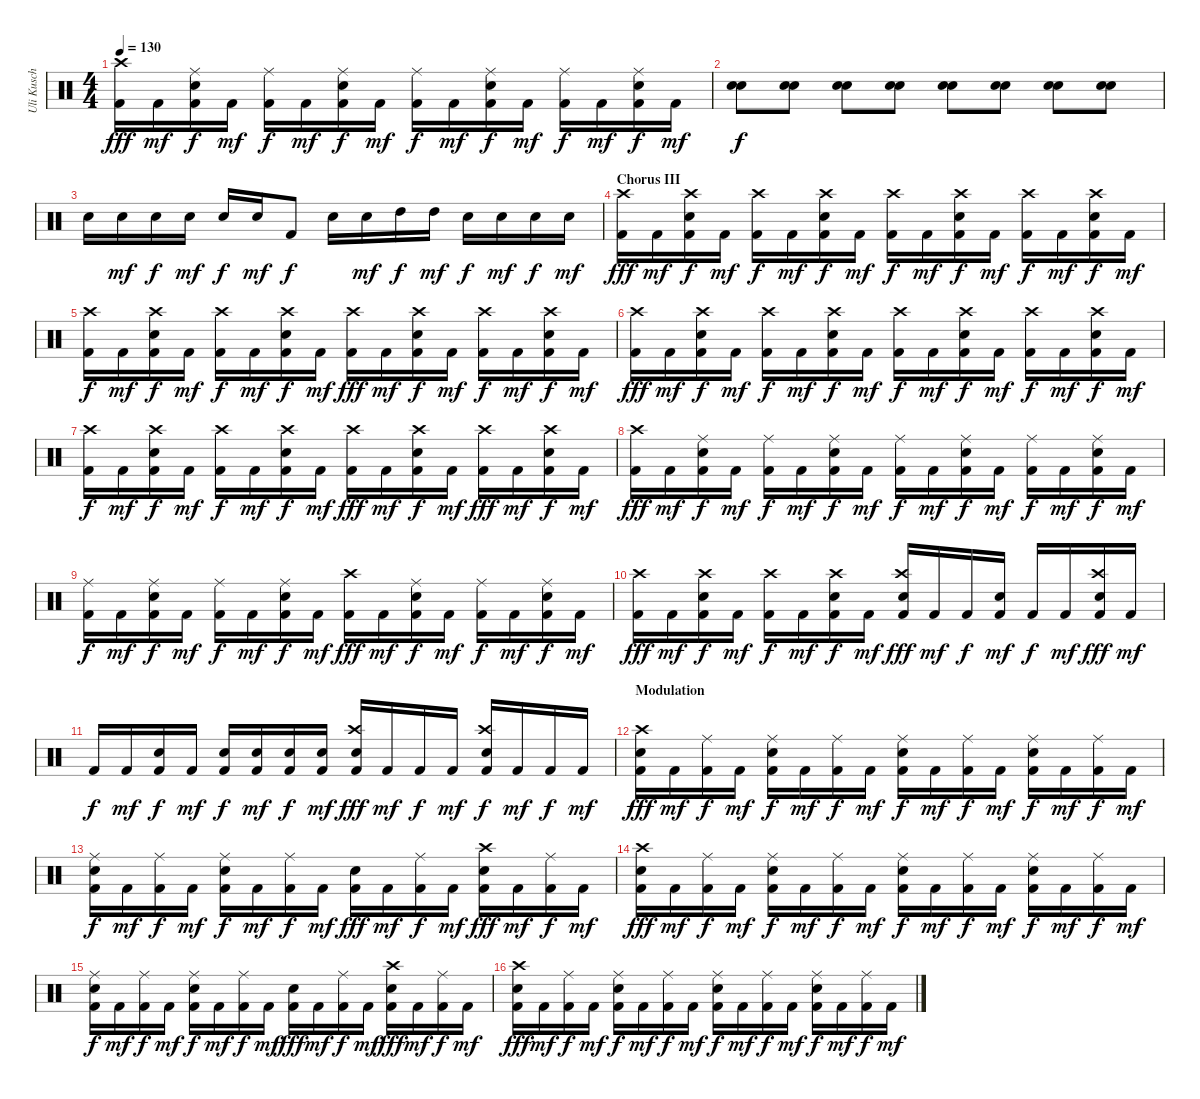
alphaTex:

\track ("Uli Kusch" "Uli Kusch") {instrument percussion}
\staff {score}
\articulation defaults
\ts (4 4)
\tempo 130
\clef neutral
\ks c
("Kick (hit) 2" "Crash high (hit)").16{dy fff} "Kick (hit) 2".16{dy mf} ("Kick (hit) 2" "Electric Snare (hit)" "Ride (middle)").16{dy f} "Kick (hit) 2".16{dy mf} ("Kick (hit) 2" "Ride (middle)").16{dy f} "Kick (hit) 2".16{dy mf} ("Kick (hit) 2" "Electric Snare (hit)" "Ride (middle)").16{dy f} "Kick (hit) 2".16{dy mf} ("Kick (hit) 2" "Ride (middle)").16{dy f} "Kick (hit) 2".16{dy mf} ("Kick (hit) 2" "Electric Snare (hit)" "Ride (middle)").16{dy f} "Kick (hit) 2".16{dy mf} ("Kick (hit) 2" "Ride (middle)").16{dy f} "Kick (hit) 2".16{dy mf} ("Kick (hit) 2" "Electric Snare (hit)" "Ride (middle)").16{dy f} "Kick (hit) 2".16{dy mf} |
("Snare (hit) 2" "Electric Snare (hit)").8{dy f} ("Snare (hit) 2" "Electric Snare (hit)").8 ("Snare (hit) 2" "Electric Snare (hit)").8 ("Snare (hit) 2" "Electric Snare (hit)").8 ("Snare (hit) 2" "Electric Snare (hit)").8 ("Snare (hit) 2" "Electric Snare (hit)").8 ("Snare (hit) 2" "Electric Snare (hit)").8 ("Snare (hit) 2" "Electric Snare (hit)").8 |
"Electric Snare (hit)".16 "Electric Snare (hit)".16{dy mf} "Electric Snare (hit)".16{dy f} "Electric Snare (hit)".16{dy mf} "Electric Snare (hit)".16{dy f} "Electric Snare (hit)".16{dy mf} "Kick (hit) 2".8{dy f} "Electric Snare (hit)".16 "Electric Snare (hit)".16{dy mf} "High Tom (hit)".16{dy f} "High Tom (hit)".16{dy mf} "Electric Snare (hit)".16{dy f} "Electric Snare (hit)".16{dy mf} "Electric Snare (hit)".16{dy f} "Electric Snare (hit)".16{dy mf} |
\section ("" "Chorus III")
("Kick (hit) 2" "Crash high (hit)").16{dy fff} "Kick (hit) 2".16{dy mf} ("Kick (hit) 2" "Electric Snare (hit)" "Crash high (hit)").16{dy f} "Kick (hit) 2".16{dy mf} ("Kick (hit) 2" "Crash high (hit)").16{dy f} "Kick (hit) 2".16{dy mf} ("Kick (hit) 2" "Electric Snare (hit)" "Crash high (hit)").16{dy f} "Kick (hit) 2".16{dy mf} ("Kick (hit) 2" "Crash high (hit)").16{dy f} "Kick (hit) 2".16{dy mf} ("Kick (hit) 2" "Electric Snare (hit)" "Crash high (hit)").16{dy f} "Kick (hit) 2".16{dy mf} ("Kick (hit) 2" "Crash high (hit)").16{dy f} "Kick (hit) 2".16{dy mf} ("Kick (hit) 2" "Electric Snare (hit)" "Crash high (hit)").16{dy f} "Kick (hit) 2".16{dy mf} |
("Kick (hit) 2" "Crash high (hit)").16{dy f} "Kick (hit) 2".16{dy mf} ("Kick (hit) 2" "Electric Snare (hit)" "Crash high (hit)").16{dy f} "Kick (hit) 2".16{dy mf} ("Kick (hit) 2" "Crash high (hit)").16{dy f} "Kick (hit) 2".16{dy mf} ("Kick (hit) 2" "Electric Snare (hit)" "Crash high (hit)").16{dy f} "Kick (hit) 2".16{dy mf} ("Kick (hit) 2" "Crash high (hit)").16{dy fff} "Kick (hit) 2".16{dy mf} ("Kick (hit) 2" "Electric Snare (hit)" "Crash high (hit)").16{dy f} "Kick (hit) 2".16{dy mf} ("Kick (hit) 2" "Crash high (hit)").16{dy f} "Kick (hit) 2".16{dy mf} ("Kick (hit) 2" "Electric Snare (hit)" "Crash high (hit)").16{dy f} "Kick (hit) 2".16{dy mf} |
("Kick (hit) 2" "Crash high (hit)").16{dy fff} "Kick (hit) 2".16{dy mf} ("Kick (hit) 2" "Electric Snare (hit)" "Crash high (hit)").16{dy f} "Kick (hit) 2".16{dy mf} ("Kick (hit) 2" "Crash high (hit)").16{dy f} "Kick (hit) 2".16{dy mf} ("Kick (hit) 2" "Electric Snare (hit)" "Crash high (hit)").16{dy f} "Kick (hit) 2".16{dy mf} ("Kick (hit) 2" "Crash high (hit)").16{dy f} "Kick (hit) 2".16{dy mf} ("Kick (hit) 2" "Electric Snare (hit)" "Crash high (hit)").16{dy f} "Kick (hit) 2".16{dy mf} ("Kick (hit) 2" "Crash high (hit)").16{dy f} "Kick (hit) 2".16{dy mf} ("Kick (hit) 2" "Electric Snare (hit)" "Crash high (hit)").16{dy f} "Kick (hit) 2".16{dy mf} |
("Kick (hit) 2" "Crash high (hit)").16{dy f} "Kick (hit) 2".16{dy mf} ("Kick (hit) 2" "Electric Snare (hit)" "Crash high (hit)").16{dy f} "Kick (hit) 2".16{dy mf} ("Kick (hit) 2" "Crash high (hit)").16{dy f} "Kick (hit) 2".16{dy mf} ("Kick (hit) 2" "Electric Snare (hit)" "Crash high (hit)").16{dy f} "Kick (hit) 2".16{dy mf} ("Kick (hit) 2" "Crash high (hit)").16{dy fff} "Kick (hit) 2".16{dy mf} ("Kick (hit) 2" "Electric Snare (hit)" "Crash high (hit)").16{dy f} "Kick (hit) 2".16{dy mf} ("Kick (hit) 2" "Crash high (hit)").16{dy fff} "Kick (hit) 2".16{dy mf} ("Kick (hit) 2" "Electric Snare (hit)" "Crash high (hit)").16{dy f} "Kick (hit) 2".16{dy mf} |
("Kick (hit) 2" "Crash high (hit)").16{dy fff} "Kick (hit) 2".16{dy mf} ("Kick (hit) 2" "Electric Snare (hit)" "Ride (middle)").16{dy f} "Kick (hit) 2".16{dy mf} ("Kick (hit) 2" "Ride (middle)").16{dy f} "Kick (hit) 2".16{dy mf} ("Kick (hit) 2" "Electric Snare (hit)" "Ride (middle)").16{dy f} "Kick (hit) 2".16{dy mf} ("Kick (hit) 2" "Ride (middle)").16{dy f} "Kick (hit) 2".16{dy mf} ("Kick (hit) 2" "Electric Snare (hit)" "Ride (middle)").16{dy f} "Kick (hit) 2".16{dy mf} ("Kick (hit) 2" "Ride (middle)").16{dy f} "Kick (hit) 2".16{dy mf} ("Kick (hit) 2" "Electric Snare (hit)" "Ride (middle)").16{dy f} "Kick (hit) 2".16{dy mf} |
("Kick (hit) 2" "Ride (middle)").16{dy f} "Kick (hit) 2".16{dy mf} ("Kick (hit) 2" "Electric Snare (hit)" "Ride (middle)").16{dy f} "Kick (hit) 2".16{dy mf} ("Kick (hit) 2" "Ride (middle)").16{dy f} "Kick (hit) 2".16{dy mf} ("Kick (hit) 2" "Electric Snare (hit)" "Ride (middle)").16{dy f} "Kick (hit) 2".16{dy mf} ("Kick (hit) 2" "Crash high (hit)").16{dy fff} "Kick (hit) 2".16{dy mf} ("Kick (hit) 2" "Electric Snare (hit)" "Ride (middle)").16{dy f} "Kick (hit) 2".16{dy mf} ("Kick (hit) 2" "Ride (middle)").16{dy f} "Kick (hit) 2".16{dy mf} ("Kick (hit) 2" "Electric Snare (hit)" "Ride (middle)").16{dy f} "Kick (hit) 2".16{dy mf} |
("Kick (hit) 2" "Crash high (hit)").16{dy fff} "Kick (hit) 2".16{dy mf} ("Kick (hit) 2" "Electric Snare (hit)" "Crash high (hit)").16{dy f} "Kick (hit) 2".16{dy mf} ("Kick (hit) 2" "Crash high (hit)").16{dy f} "Kick (hit) 2".16{dy mf} ("Kick (hit) 2" "Electric Snare (hit)" "Crash high (hit)").16{dy f} "Kick (hit) 2".16{dy mf} ("Kick (hit) 2" "Electric Snare (hit)" "Crash high (hit)").16{dy fff} "Kick (hit) 2".16{dy mf} "Kick (hit) 2".16{dy f} ("Kick (hit) 2" "Electric Snare (hit)").16{dy mf} "Kick (hit) 2".16{dy f} "Kick (hit) 2".16{dy mf} ("Kick (hit) 2" "Electric Snare (hit)" "Crash high (hit)").16{dy fff} "Kick (hit) 2".16{dy mf} |
"Kick (hit) 2".16{dy f} "Kick (hit) 2".16{dy mf} ("Kick (hit) 2" "Snare (hit) 2").16{dy f} "Kick (hit) 2".16{dy mf} ("Kick (hit) 2" "Electric Snare (hit)").16{dy f} ("Kick (hit) 2" "Electric Snare (hit)").16{dy mf} ("Kick (hit) 2" "Electric Snare (hit)").16{dy f} ("Kick (hit) 2" "Electric Snare (hit)").16{dy mf} ("Kick (hit) 2" "Electric Snare (hit)" "Crash high (hit)").16{dy fff} "Kick (hit) 2".16{dy mf} "Kick (hit) 2".16{dy f} "Kick (hit) 2".16{dy mf} ("Kick (hit) 2" "Electric Snare (hit)" "Crash high (hit)").16{dy f} "Kick (hit) 2".16{dy mf} "Kick (hit) 2".16{dy f} "Kick (hit) 2".16{dy mf} |
\section ("" "Modulation")
("Kick (hit) 2" "Electric Snare (hit)" "Crash high (hit)").16{dy fff} "Kick (hit) 2".16{dy mf} ("Kick (hit) 2" "Ride (middle)").16{dy f} "Kick (hit) 2".16{dy mf} ("Kick (hit) 2" "Electric Snare (hit)" "Ride (middle)").16{dy f} "Kick (hit) 2".16{dy mf} ("Kick (hit) 2" "Ride (middle)").16{dy f} "Kick (hit) 2".16{dy mf} ("Kick (hit) 2" "Electric Snare (hit)" "Ride (middle)").16{dy f} "Kick (hit) 2".16{dy mf} ("Kick (hit) 2" "Ride (middle)").16{dy f} "Kick (hit) 2".16{dy mf} ("Kick (hit) 2" "Electric Snare (hit)" "Ride (middle)").16{dy f} "Kick (hit) 2".16{dy mf} ("Kick (hit) 2" "Ride (middle)").16{dy f} "Kick (hit) 2".16{dy mf} |
("Kick (hit) 2" "Ride (middle)" "Electric Snare (hit)").16{dy f} "Kick (hit) 2".16{dy mf} ("Kick (hit) 2" "Ride (middle)").16{dy f} "Kick (hit) 2".16{dy mf} ("Kick (hit) 2" "Ride (middle)" "Electric Snare (hit)").16{dy f} "Kick (hit) 2".16{dy mf} ("Kick (hit) 2" "Ride (middle)").16{dy f} "Kick (hit) 2".16{dy mf} ("Kick (hit) 2" "Electric Snare (hit)").16{dy fff} "Kick (hit) 2".16{dy mf} ("Kick (hit) 2" "Ride (middle)").16{dy f} "Kick (hit) 2".16{dy mf} ("Kick (hit) 2" "Crash high (hit)" "Electric Snare (hit)").16{dy fff} "Kick (hit) 2".16{dy mf} ("Kick (hit) 2" "Ride (middle)").16{dy f} "Kick (hit) 2".16{dy mf} |
("Kick (hit) 2" "Electric Snare (hit)" "Crash high (hit)").16{dy fff} "Kick (hit) 2".16{dy mf} ("Kick (hit) 2" "Ride (middle)").16{dy f} "Kick (hit) 2".16{dy mf} ("Kick (hit) 2" "Electric Snare (hit)" "Ride (middle)").16{dy f} "Kick (hit) 2".16{dy mf} ("Kick (hit) 2" "Ride (middle)").16{dy f} "Kick (hit) 2".16{dy mf} ("Kick (hit) 2" "Electric Snare (hit)" "Ride (middle)").16{dy f} "Kick (hit) 2".16{dy mf} ("Kick (hit) 2" "Ride (middle)").16{dy f} "Kick (hit) 2".16{dy mf} ("Kick (hit) 2" "Electric Snare (hit)" "Ride (middle)").16{dy f} "Kick (hit) 2".16{dy mf} ("Kick (hit) 2" "Ride (middle)").16{dy f} "Kick (hit) 2".16{dy mf} |
("Kick (hit) 2" "Ride (middle)" "Electric Snare (hit)").16{dy f} "Kick (hit) 2".16{dy mf} ("Kick (hit) 2" "Ride (middle)").16{dy f} "Kick (hit) 2".16{dy mf} ("Kick (hit) 2" "Ride (middle)" "Electric Snare (hit)").16{dy f} "Kick (hit) 2".16{dy mf} ("Kick (hit) 2" "Ride (middle)").16{dy f} "Kick (hit) 2".16{dy mf} ("Kick (hit) 2" "Electric Snare (hit)").16{dy fff} "Kick (hit) 2".16{dy mf} ("Kick (hit) 2" "Ride (middle)").16{dy f} "Kick (hit) 2".16{dy mf} ("Kick (hit) 2" "Crash high (hit)" "Electric Snare (hit)").16{dy fff} "Kick (hit) 2".16{dy mf} ("Kick (hit) 2" "Ride (middle)").16{dy f} "Kick (hit) 2".16{dy mf} |
("Kick (hit) 2" "Electric Snare (hit)" "Crash high (hit)").16{dy fff} "Kick (hit) 2".16{dy mf} ("Kick (hit) 2" "Ride (middle)").16{dy f} "Kick (hit) 2".16{dy mf} ("Kick (hit) 2" "Electric Snare (hit)" "Ride (middle)").16{dy f} "Kick (hit) 2".16{dy mf} ("Kick (hit) 2" "Ride (middle)").16{dy f} "Kick (hit) 2".16{dy mf} ("Kick (hit) 2" "Electric Snare (hit)" "Ride (middle)").16{dy f} "Kick (hit) 2".16{dy mf} ("Kick (hit) 2" "Ride (middle)").16{dy f} "Kick (hit) 2".16{dy mf} ("Kick (hit) 2" "Electric Snare (hit)" "Ride (middle)").16{dy f} "Kick (hit) 2".16{dy mf} ("Kick (hit) 2" "Ride (middle)").16{dy f} "Kick (hit) 2".16{dy mf}
